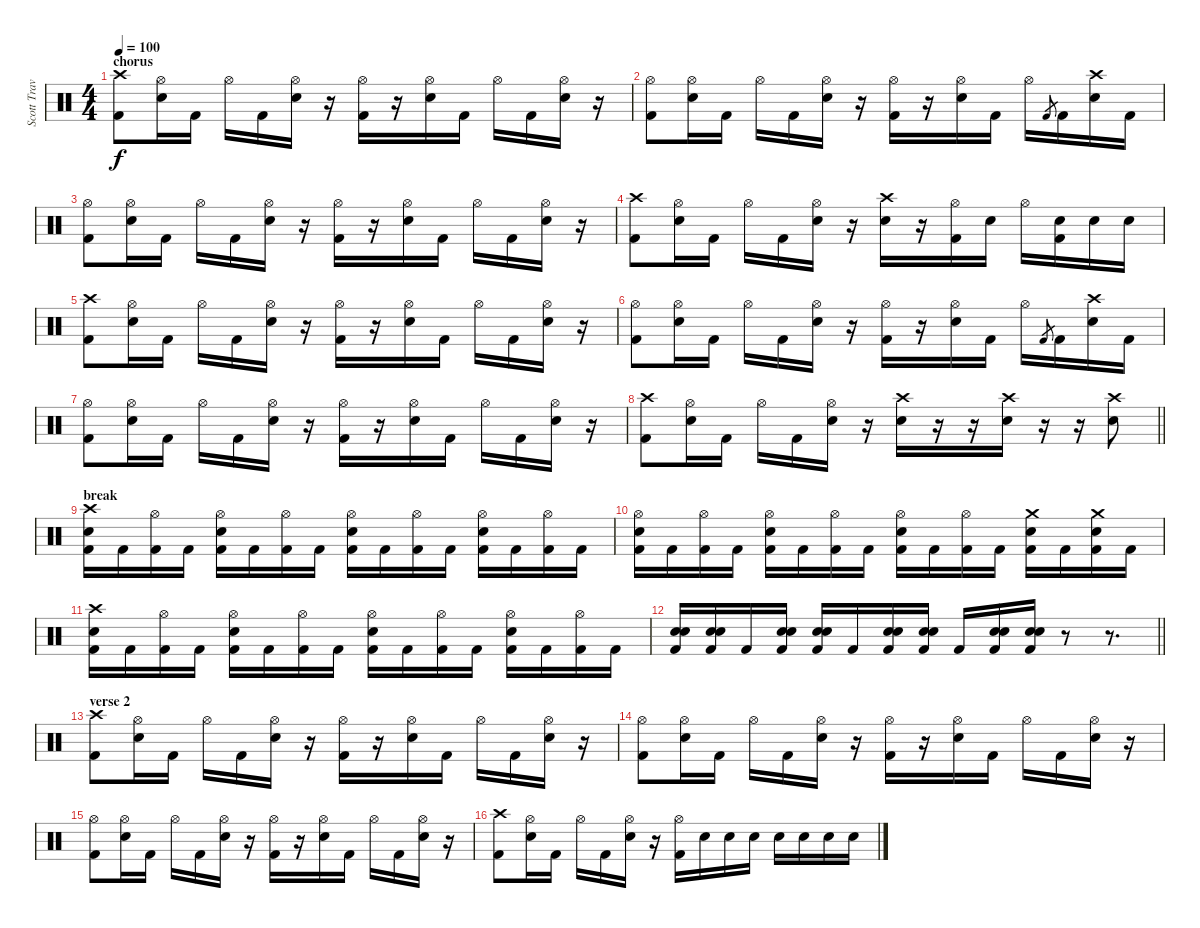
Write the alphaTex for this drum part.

\track ("Scott Travis" "Scott Trav") {instrument percussion}
\staff {score}
\articulation defaults
\ts (4 4)
\section ("" "chorus")
\tempo 100
\clef neutral
\ks c
("Crash high (hit)" "Kick (hit) 2").8{dy f} ("Hi-Hat (open)" "Snare (hit) 2").16 "Kick (hit) 2".16 "Hi-Hat (open)".16 "Kick (hit) 2".16 ("Hi-Hat (open)" "Snare (hit) 2").16 r.16 ("Hi-Hat (open)" "Kick (hit) 2").16 r.16 ("Hi-Hat (open)" "Snare (hit) 2").16 "Kick (hit) 2".16 "Hi-Hat (open)".16 "Kick (hit) 2".16 ("Hi-Hat (open)" "Snare (hit) 2").16 r.16 |
("Hi-Hat (open)" "Kick (hit) 2").8 ("Hi-Hat (open)" "Snare (hit) 2").16 "Kick (hit) 2".16 "Hi-Hat (open)".16 "Kick (hit) 2".16 ("Hi-Hat (open)" "Snare (hit) 2").16 r.16 ("Hi-Hat (open)" "Kick (hit) 2").16 r.16 ("Hi-Hat (open)" "Snare (hit) 2").16 "Kick (hit) 2".16 "Hi-Hat (open)".16 "Kick (hit) 2".8{gr} "Kick (hit) 2".16 ("Crash high (hit)" "Snare (hit) 2").16 "Kick (hit) 2".16 |
("Hi-Hat (open)" "Kick (hit) 2").8 ("Hi-Hat (open)" "Snare (hit) 2").16 "Kick (hit) 2".16 "Hi-Hat (open)".16 "Kick (hit) 2".16 ("Hi-Hat (open)" "Snare (hit) 2").16 r.16 ("Hi-Hat (open)" "Kick (hit) 2").16 r.16 ("Hi-Hat (open)" "Snare (hit) 2").16 "Kick (hit) 2".16 "Hi-Hat (open)".16 "Kick (hit) 2".16 ("Hi-Hat (open)" "Snare (hit) 2").16 r.16 |
("Crash high (hit)" "Kick (hit) 2").8 ("Hi-Hat (open)" "Snare (hit) 2").16 "Kick (hit) 2".16 "Hi-Hat (open)".16 "Kick (hit) 2".16 ("Hi-Hat (open)" "Snare (hit) 2").16 r.16 ("Crash high (hit)" "Snare (hit) 2").16 r.16 ("Hi-Hat (open)" "Kick (hit) 2").16 "Snare (hit) 2".16 "Hi-Hat (open)".16 ("Snare (hit) 2" "Kick (hit) 2").16 "Snare (hit) 2".16 "Snare (hit) 2".16 |
("Crash high (hit)" "Kick (hit) 2").8 ("Hi-Hat (open)" "Snare (hit) 2").16 "Kick (hit) 2".16 "Hi-Hat (open)".16 "Kick (hit) 2".16 ("Hi-Hat (open)" "Snare (hit) 2").16 r.16 ("Hi-Hat (open)" "Kick (hit) 2").16 r.16 ("Hi-Hat (open)" "Snare (hit) 2").16 "Kick (hit) 2".16 "Hi-Hat (open)".16 "Kick (hit) 2".16 ("Hi-Hat (open)" "Snare (hit) 2").16 r.16 |
("Hi-Hat (open)" "Kick (hit) 2").8 ("Hi-Hat (open)" "Snare (hit) 2").16 "Kick (hit) 2".16 "Hi-Hat (open)".16 "Kick (hit) 2".16 ("Hi-Hat (open)" "Snare (hit) 2").16 r.16 ("Hi-Hat (open)" "Kick (hit) 2").16 r.16 ("Hi-Hat (open)" "Snare (hit) 2").16 "Kick (hit) 2".16 "Hi-Hat (open)".16 "Kick (hit) 2".8{gr} "Kick (hit) 2".16 ("Crash high (hit)" "Snare (hit) 2").16 "Kick (hit) 2".16 |
("Hi-Hat (open)" "Kick (hit) 2").8 ("Hi-Hat (open)" "Snare (hit) 2").16 "Kick (hit) 2".16 "Hi-Hat (open)".16 "Kick (hit) 2".16 ("Hi-Hat (open)" "Snare (hit) 2").16 r.16 ("Hi-Hat (open)" "Kick (hit) 2").16 r.16 ("Hi-Hat (open)" "Snare (hit) 2").16 "Kick (hit) 2".16 "Hi-Hat (open)".16 "Kick (hit) 2".16 ("Hi-Hat (open)" "Snare (hit) 2").16 r.16 |
\barLineRight lightlight
("Crash high (hit)" "Kick (hit) 2").8 ("Hi-Hat (open)" "Snare (hit) 2").16 "Kick (hit) 2".16 "Hi-Hat (open)".16 "Kick (hit) 2".16 ("Hi-Hat (open)" "Snare (hit) 2").16 r.16 ("Crash high (hit)" "Snare (hit) 2").16 r.16 r.16 ("Crash high (hit)" "Snare (hit) 2").16 r.16 r.16 ("Crash high (hit)" "Snare (hit) 2").8 |
\section ("" "break")
("Crash high (hit)" "Snare (hit) 2" "Kick (hit) 2").16 "Kick (hit) 2".16 ("Hi-Hat (open)" "Kick (hit) 2").16 "Kick (hit) 2".16 ("Hi-Hat (open)" "Snare (hit) 2" "Kick (hit) 2").16 "Kick (hit) 2".16 ("Hi-Hat (open)" "Kick (hit) 2").16 "Kick (hit) 2".16 ("Hi-Hat (open)" "Snare (hit) 2" "Kick (hit) 2").16 "Kick (hit) 2".16 ("Hi-Hat (open)" "Kick (hit) 2").16 "Kick (hit) 2".16 ("Hi-Hat (open)" "Snare (hit) 2" "Kick (hit) 2").16 "Kick (hit) 2".16 ("Hi-Hat (open)" "Kick (hit) 2").16 "Kick (hit) 2".16 |
("Hi-Hat (open)" "Snare (hit) 2" "Kick (hit) 2").16 "Kick (hit) 2".16 ("Hi-Hat (open)" "Kick (hit) 2").16 "Kick (hit) 2".16 ("Hi-Hat (open)" "Snare (hit) 2" "Kick (hit) 2").16 "Kick (hit) 2".16 ("Hi-Hat (open)" "Kick (hit) 2").16 "Kick (hit) 2".16 ("Hi-Hat (open)" "Snare (hit) 2" "Kick (hit) 2").16 "Kick (hit) 2".16 ("Hi-Hat (open)" "Kick (hit) 2").16 "Kick (hit) 2".16 ("Crash medium (hit)" "Snare (hit) 2" "Kick (hit) 2").16 "Kick (hit) 2".16 ("Crash medium (hit)" "Snare (hit) 2" "Kick (hit) 2").16 "Kick (hit) 2".16 |
("Crash high (hit)" "Snare (hit) 2" "Kick (hit) 2").16 "Kick (hit) 2".16 ("Hi-Hat (open)" "Kick (hit) 2").16 "Kick (hit) 2".16 ("Hi-Hat (open)" "Snare (hit) 2" "Kick (hit) 2").16 "Kick (hit) 2".16 ("Hi-Hat (open)" "Kick (hit) 2").16 "Kick (hit) 2".16 ("Hi-Hat (open)" "Snare (hit) 2" "Kick (hit) 2").16 "Kick (hit) 2".16 ("Hi-Hat (open)" "Kick (hit) 2").16 "Kick (hit) 2".16 ("Hi-Hat (open)" "Snare (hit) 2" "Kick (hit) 2").16 "Kick (hit) 2".16 ("Hi-Hat (open)" "Kick (hit) 2").16 "Kick (hit) 2".16 |
\barLineRight lightlight
("Electric Snare (hit)" "Snare (hit) 2" "Kick (hit) 2").16 ("Electric Snare (hit)" "Snare (hit) 2" "Kick (hit) 2").16 "Kick (hit) 2".16 ("Electric Snare (hit)" "Snare (hit) 2" "Kick (hit) 2").16 ("Electric Snare (hit)" "Snare (hit) 2" "Kick (hit) 2").16 "Kick (hit) 2".16 ("Electric Snare (hit)" "Snare (hit) 2" "Kick (hit) 2").16 ("Electric Snare (hit)" "Snare (hit) 2" "Kick (hit) 2").16 "Kick (hit) 2".16 ("Electric Snare (hit)" "Snare (hit) 2" "Kick (hit) 2").16 ("Electric Snare (hit)" "Snare (hit) 2" "Kick (hit) 2").16 r.8 r.8{d} |
\section ("" "verse 2")
("Crash high (hit)" "Kick (hit) 2").8 ("Hi-Hat (open)" "Snare (hit) 2").16 "Kick (hit) 2".16 "Hi-Hat (open)".16 "Kick (hit) 2".16 ("Hi-Hat (open)" "Snare (hit) 2").16 r.16 ("Hi-Hat (open)" "Kick (hit) 2").16 r.16 ("Hi-Hat (open)" "Snare (hit) 2").16 "Kick (hit) 2".16 "Hi-Hat (open)".16 "Kick (hit) 2".16 ("Hi-Hat (open)" "Snare (hit) 2").16 r.16 |
("Hi-Hat (open)" "Kick (hit) 2").8 ("Hi-Hat (open)" "Snare (hit) 2").16 "Kick (hit) 2".16 "Hi-Hat (open)".16 "Kick (hit) 2".16 ("Hi-Hat (open)" "Snare (hit) 2").16 r.16 ("Hi-Hat (open)" "Kick (hit) 2").16 r.16 ("Hi-Hat (open)" "Snare (hit) 2").16 "Kick (hit) 2".16 "Hi-Hat (open)".16 "Kick (hit) 2".16 ("Hi-Hat (open)" "Snare (hit) 2").16 r.16 |
("Hi-Hat (open)" "Kick (hit) 2").8 ("Hi-Hat (open)" "Snare (hit) 2").16 "Kick (hit) 2".16 "Hi-Hat (open)".16 "Kick (hit) 2".16 ("Hi-Hat (open)" "Snare (hit) 2").16 r.16 ("Hi-Hat (open)" "Kick (hit) 2").16 r.16 ("Hi-Hat (open)" "Snare (hit) 2").16 "Kick (hit) 2".16 "Hi-Hat (open)".16 "Kick (hit) 2".16 ("Hi-Hat (open)" "Snare (hit) 2").16 r.16 |
("Crash high (hit)" "Kick (hit) 2").8 ("Hi-Hat (open)" "Snare (hit) 2").16 "Kick (hit) 2".16 "Hi-Hat (open)".16 "Kick (hit) 2".16 ("Hi-Hat (open)" "Snare (hit) 2").16 r.16 ("Hi-Hat (open)" "Kick (hit) 2").16 "Snare (hit) 2".16 "Snare (hit) 2".16 "Snare (hit) 2".16 "Snare (hit) 2".16 "Snare (hit) 2".16 "Snare (hit) 2".16 "Snare (hit) 2".16
